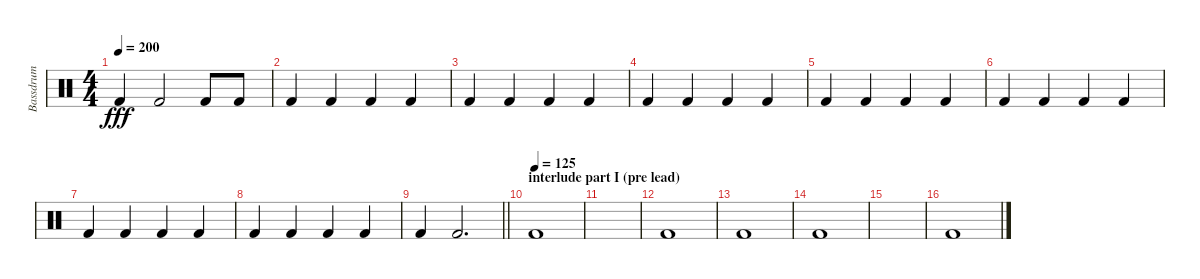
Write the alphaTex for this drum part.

\track ("Bassdrum" "Bassdrum") {instrument percussion}
\staff {score}
\articulation defaults
\ts (4 4)
\tempo 200
\clef neutral
\ks c "Kick (hit) 2".4{dy fff} "Kick (hit) 2".2 "Kick (hit) 2".8 "Kick (hit) 2".8
|
"Kick (hit) 2".4 "Kick (hit) 2".4 "Kick (hit) 2".4 "Kick (hit) 2".4 |
"Kick (hit) 2".4 "Kick (hit) 2".4 "Kick (hit) 2".4 "Kick (hit) 2".4 |
"Kick (hit) 2".4 "Kick (hit) 2".4 "Kick (hit) 2".4 "Kick (hit) 2".4 |
"Kick (hit) 2".4 "Kick (hit) 2".4 "Kick (hit) 2".4 "Kick (hit) 2".4 |
"Kick (hit) 2".4 "Kick (hit) 2".4 "Kick (hit) 2".4 "Kick (hit) 2".4 |
"Kick (hit) 2".4 "Kick (hit) 2".4 "Kick (hit) 2".4 "Kick (hit) 2".4 |
"Kick (hit) 2".4 "Kick (hit) 2".4 "Kick (hit) 2".4 "Kick (hit) 2".4 |
\barLineRight lightlight "Kick (hit) 2".4 "Kick (hit) 2".2{d}
|
\section ("" "interlude part I (pre lead)")
\tempo (125)
"Kick (hit) 2".1 |
|
"Kick (hit) 2".1 |
"Kick (hit) 2".1 |
"Kick (hit) 2".1 |
|
"Kick (hit) 2".1
